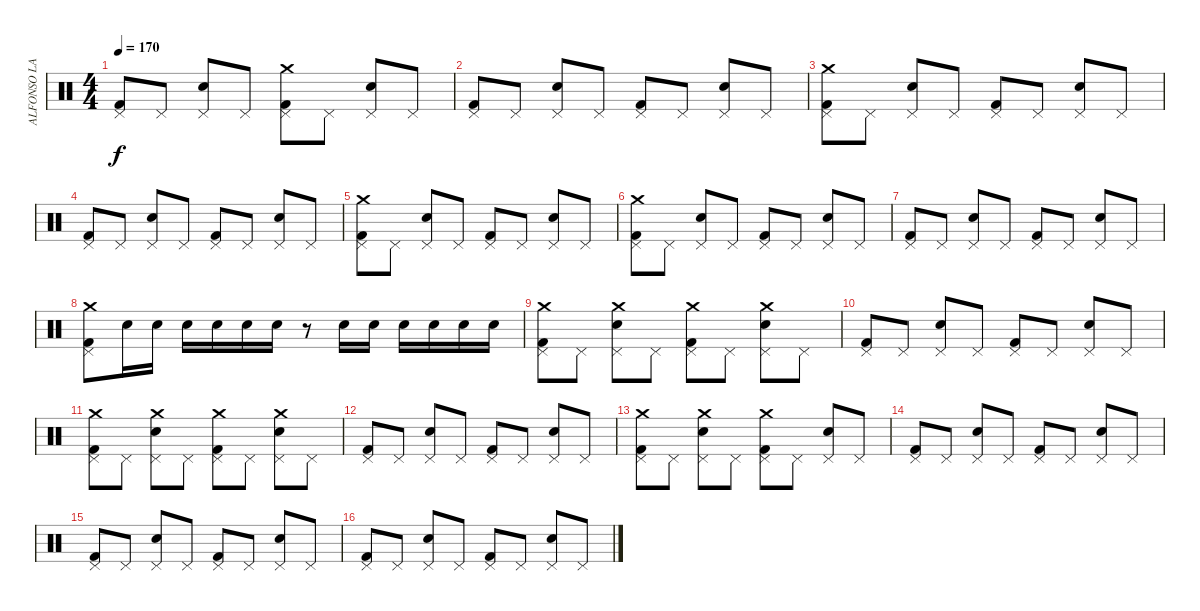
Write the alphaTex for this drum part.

\track ("ALFONSO LANTERO" "ALFONSO LA") {instrument percussion}
\staff {score}
\articulation defaults
\ts (4 4)
\tempo 170
\clef neutral
\ks c
("Kick (hit) 2" "Pedal Hi-Hat (hit)").8{dy f} "Pedal Hi-Hat (hit)".8 ("Electric Snare (hit)" "Pedal Hi-Hat (hit)").8 "Pedal Hi-Hat (hit)".8 ("Kick (hit) 2" "Pedal Hi-Hat (hit)" "Crash medium (hit)").8 "Pedal Hi-Hat (hit)".8 ("Electric Snare (hit)" "Pedal Hi-Hat (hit)").8 "Pedal Hi-Hat (hit)".8 |
("Kick (hit) 2" "Pedal Hi-Hat (hit)").8 "Pedal Hi-Hat (hit)".8 ("Electric Snare (hit)" "Pedal Hi-Hat (hit)").8 "Pedal Hi-Hat (hit)".8 ("Kick (hit) 2" "Pedal Hi-Hat (hit)").8 "Pedal Hi-Hat (hit)".8 ("Electric Snare (hit)" "Pedal Hi-Hat (hit)").8 "Pedal Hi-Hat (hit)".8 |
("Kick (hit) 2" "Pedal Hi-Hat (hit)" "Crash medium (hit)").8 "Pedal Hi-Hat (hit)".8 ("Electric Snare (hit)" "Pedal Hi-Hat (hit)").8 "Pedal Hi-Hat (hit)".8 ("Kick (hit) 2" "Pedal Hi-Hat (hit)").8 "Pedal Hi-Hat (hit)".8 ("Electric Snare (hit)" "Pedal Hi-Hat (hit)").8 "Pedal Hi-Hat (hit)".8 |
("Kick (hit) 2" "Pedal Hi-Hat (hit)").8 "Pedal Hi-Hat (hit)".8 ("Electric Snare (hit)" "Pedal Hi-Hat (hit)").8 "Pedal Hi-Hat (hit)".8 ("Kick (hit) 2" "Pedal Hi-Hat (hit)").8 "Pedal Hi-Hat (hit)".8 ("Electric Snare (hit)" "Pedal Hi-Hat (hit)").8 "Pedal Hi-Hat (hit)".8 |
("Kick (hit) 2" "Pedal Hi-Hat (hit)" "Crash medium (hit)").8 "Pedal Hi-Hat (hit)".8 ("Electric Snare (hit)" "Pedal Hi-Hat (hit)").8 "Pedal Hi-Hat (hit)".8 ("Kick (hit) 2" "Pedal Hi-Hat (hit)").8 "Pedal Hi-Hat (hit)".8 ("Electric Snare (hit)" "Pedal Hi-Hat (hit)").8 "Pedal Hi-Hat (hit)".8 |
("Kick (hit) 2" "Pedal Hi-Hat (hit)" "Crash medium (hit)").8 "Pedal Hi-Hat (hit)".8 ("Electric Snare (hit)" "Pedal Hi-Hat (hit)").8 "Pedal Hi-Hat (hit)".8 ("Kick (hit) 2" "Pedal Hi-Hat (hit)").8 "Pedal Hi-Hat (hit)".8 ("Electric Snare (hit)" "Pedal Hi-Hat (hit)").8 "Pedal Hi-Hat (hit)".8 |
("Kick (hit) 2" "Pedal Hi-Hat (hit)").8 "Pedal Hi-Hat (hit)".8 ("Electric Snare (hit)" "Pedal Hi-Hat (hit)").8 "Pedal Hi-Hat (hit)".8 ("Kick (hit) 2" "Pedal Hi-Hat (hit)").8 "Pedal Hi-Hat (hit)".8 ("Electric Snare (hit)" "Pedal Hi-Hat (hit)").8 "Pedal Hi-Hat (hit)".8 |
("Kick (hit) 2" "Pedal Hi-Hat (hit)" "Crash medium (hit)").8 "Electric Snare (hit)".16 "Electric Snare (hit)".16 "Electric Snare (hit)".16 "Electric Snare (hit)".16 "Electric Snare (hit)".16 "Electric Snare (hit)".16 r.8 "Electric Snare (hit)".16 "Electric Snare (hit)".16 "Electric Snare (hit)".16 "Electric Snare (hit)".16 "Electric Snare (hit)".16 "Electric Snare (hit)".16 |
("Kick (hit) 2" "Pedal Hi-Hat (hit)" "Crash medium (hit)").8 "Pedal Hi-Hat (hit)".8 ("Electric Snare (hit)" "Pedal Hi-Hat (hit)" "Crash medium (hit)").8 "Pedal Hi-Hat (hit)".8 ("Kick (hit) 2" "Pedal Hi-Hat (hit)" "Crash medium (hit)").8 "Pedal Hi-Hat (hit)".8 ("Electric Snare (hit)" "Pedal Hi-Hat (hit)" "Crash medium (hit)").8 "Pedal Hi-Hat (hit)".8 |
("Kick (hit) 2" "Pedal Hi-Hat (hit)").8 "Pedal Hi-Hat (hit)".8 ("Electric Snare (hit)" "Pedal Hi-Hat (hit)").8 "Pedal Hi-Hat (hit)".8 ("Kick (hit) 2" "Pedal Hi-Hat (hit)").8 "Pedal Hi-Hat (hit)".8 ("Electric Snare (hit)" "Pedal Hi-Hat (hit)").8 "Pedal Hi-Hat (hit)".8 |
("Kick (hit) 2" "Pedal Hi-Hat (hit)" "Crash medium (hit)").8 "Pedal Hi-Hat (hit)".8 ("Electric Snare (hit)" "Pedal Hi-Hat (hit)" "Crash medium (hit)").8 "Pedal Hi-Hat (hit)".8 ("Kick (hit) 2" "Pedal Hi-Hat (hit)" "Crash medium (hit)").8 "Pedal Hi-Hat (hit)".8 ("Electric Snare (hit)" "Pedal Hi-Hat (hit)" "Crash medium (hit)").8 "Pedal Hi-Hat (hit)".8 |
("Kick (hit) 2" "Pedal Hi-Hat (hit)").8 "Pedal Hi-Hat (hit)".8 ("Electric Snare (hit)" "Pedal Hi-Hat (hit)").8 "Pedal Hi-Hat (hit)".8 ("Kick (hit) 2" "Pedal Hi-Hat (hit)").8 "Pedal Hi-Hat (hit)".8 ("Electric Snare (hit)" "Pedal Hi-Hat (hit)").8 "Pedal Hi-Hat (hit)".8 |
("Kick (hit) 2" "Pedal Hi-Hat (hit)" "Crash medium (hit)").8 "Pedal Hi-Hat (hit)".8 ("Electric Snare (hit)" "Pedal Hi-Hat (hit)" "Crash medium (hit)").8 "Pedal Hi-Hat (hit)".8 ("Kick (hit) 2" "Pedal Hi-Hat (hit)" "Crash medium (hit)").8 "Pedal Hi-Hat (hit)".8 ("Electric Snare (hit)" "Pedal Hi-Hat (hit)").8 "Pedal Hi-Hat (hit)".8 |
("Kick (hit) 2" "Pedal Hi-Hat (hit)").8 "Pedal Hi-Hat (hit)".8 ("Electric Snare (hit)" "Pedal Hi-Hat (hit)").8 "Pedal Hi-Hat (hit)".8 ("Kick (hit) 2" "Pedal Hi-Hat (hit)").8 "Pedal Hi-Hat (hit)".8 ("Electric Snare (hit)" "Pedal Hi-Hat (hit)").8 "Pedal Hi-Hat (hit)".8 |
("Kick (hit) 2" "Pedal Hi-Hat (hit)").8 "Pedal Hi-Hat (hit)".8 ("Electric Snare (hit)" "Pedal Hi-Hat (hit)").8 "Pedal Hi-Hat (hit)".8 ("Kick (hit) 2" "Pedal Hi-Hat (hit)").8 "Pedal Hi-Hat (hit)".8 ("Electric Snare (hit)" "Pedal Hi-Hat (hit)").8 "Pedal Hi-Hat (hit)".8 |
("Kick (hit) 2" "Pedal Hi-Hat (hit)").8 "Pedal Hi-Hat (hit)".8 ("Electric Snare (hit)" "Pedal Hi-Hat (hit)").8 "Pedal Hi-Hat (hit)".8 ("Kick (hit) 2" "Pedal Hi-Hat (hit)").8 "Pedal Hi-Hat (hit)".8 ("Electric Snare (hit)" "Pedal Hi-Hat (hit)").8 "Pedal Hi-Hat (hit)".8
